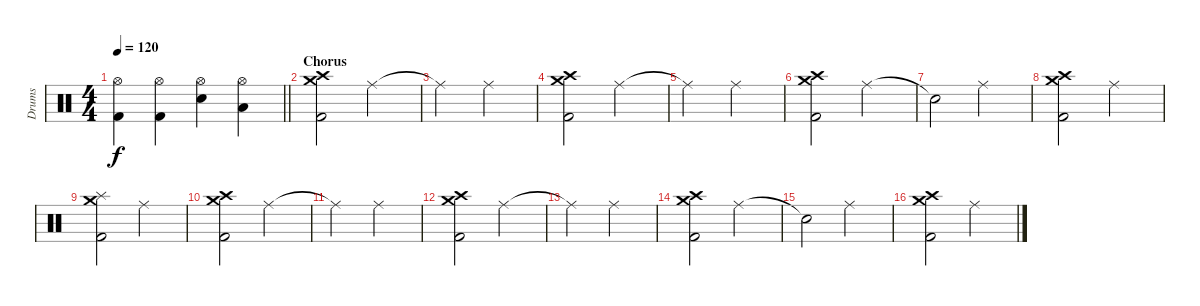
\track ("Drums" "Drums") {instrument percussion}
\staff {score}
\articulation defaults
\ts (4 4)
\tempo 120
\clef neutral
\barLineRight lightlight
\ks c
("Hi-Hat (open)" "Kick (hit) 2").4{dy f} ("Hi-Hat (open)" "Kick (hit) 2").4 ("Hi-Hat (open)" "Snare (hit) 2").4 ("Hi-Hat (open)" "Low Tom (hit)").4 |
\section ("" "Chorus")
("Crash high (hit)" "Crash medium (hit)" "Kick (hit) 2").2 "Ride (middle)".2 |
"Ride (middle)"{t}.2 "Ride (middle)".2 |
("Crash high (hit)" "Crash medium (hit)" "Kick (hit) 2").2 "Ride (middle)".2 |
"Ride (middle)"{t}.2 "Ride (middle)".2 |
("Crash high (hit)" "Crash medium (hit)" "Kick (hit) 2").2 "Ride (middle)".2 |
"Snare (hit)"{t}.2 "Ride (middle)".2 |
("Crash high (hit)" "Crash medium (hit)" "Kick (hit) 2").2 "Ride (middle)".2 |
("Crash medium (hit)" "Splash (hit)" "Kick (hit) 2").2 "Ride (middle)".2 |
("Crash high (hit)" "Crash medium (hit)" "Kick (hit) 2").2 "Ride (middle)".2 |
"Ride (middle)"{t}.2 "Ride (middle)".2 |
("Crash high (hit)" "Crash medium (hit)" "Kick (hit) 2").2 "Ride (middle)".2 |
"Ride (middle)"{t}.2 "Ride (middle)".2 |
("Crash high (hit)" "Crash medium (hit)" "Kick (hit) 2").2 "Ride (middle)".2 |
"Snare (hit)"{t}.2 "Ride (middle)".2 |
("Crash high (hit)" "Crash medium (hit)" "Kick (hit) 2").2 "Ride (middle)".2
